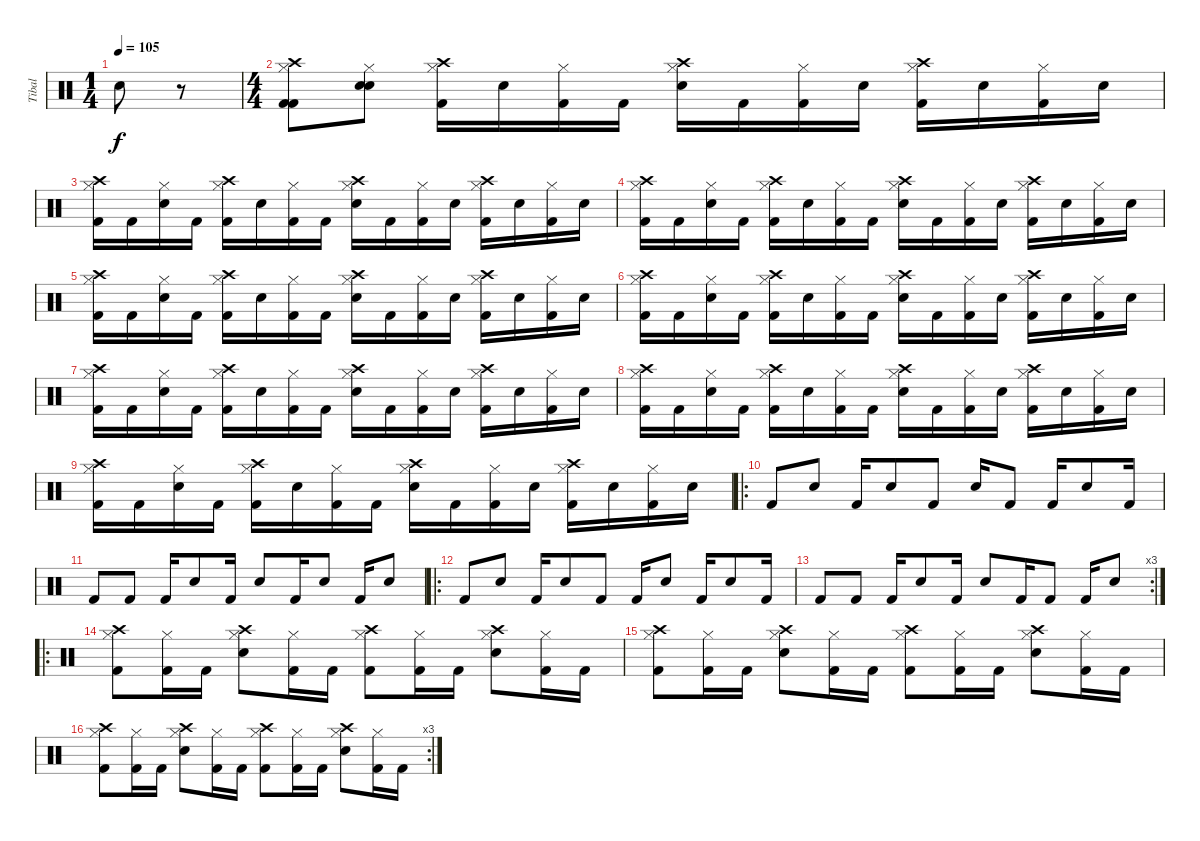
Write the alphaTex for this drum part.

\track ("Tibal" "Tibal") {instrument percussion}
\staff {score}
\articulation defaults
\ts (1 4)
\tempo 105
\clef neutral
\ks c "Snare (hit) 2".8{dy f}
r.8 |
\ts (4 4)
("Hi-Hat (closed)" "Crash high (hit)" "Kick (hit) 2" "Kick (hit) 2").8 ("Hi-Hat (closed)" "Snare (hit) 2" "Snare (hit) 2").8 ("Hi-Hat (closed)" "Crash high (hit)" "Kick (hit) 2").16 "Snare (hit) 2".16 ("Hi-Hat (closed)" "Kick (hit) 2").16 "Kick (hit) 2".16 ("Hi-Hat (closed)" "Crash high (hit)" "Snare (hit) 2").16 "Kick (hit) 2".16 ("Hi-Hat (closed)" "Kick (hit) 2").16 "Snare (hit) 2".16 ("Hi-Hat (closed)" "Crash high (hit)" "Kick (hit) 2").16 "Snare (hit) 2".16 ("Hi-Hat (closed)" "Kick (hit) 2").16 "Snare (hit) 2".16 |
("Hi-Hat (closed)" "Crash high (hit)" "Kick (hit) 2").16 "Kick (hit) 2".16 ("Hi-Hat (closed)" "Snare (hit) 2").16 "Kick (hit) 2".16 ("Hi-Hat (closed)" "Crash high (hit)" "Kick (hit) 2").16 "Snare (hit) 2".16 ("Hi-Hat (closed)" "Kick (hit) 2").16 "Kick (hit) 2".16 ("Hi-Hat (closed)" "Crash high (hit)" "Snare (hit) 2").16 "Kick (hit) 2".16 ("Hi-Hat (closed)" "Kick (hit) 2").16 "Snare (hit) 2".16 ("Hi-Hat (closed)" "Crash high (hit)" "Kick (hit) 2").16 "Snare (hit) 2".16 ("Hi-Hat (closed)" "Kick (hit) 2").16 "Snare (hit) 2".16 |
("Hi-Hat (closed)" "Crash high (hit)" "Kick (hit) 2").16 "Kick (hit) 2".16 ("Hi-Hat (closed)" "Snare (hit) 2").16 "Kick (hit) 2".16 ("Hi-Hat (closed)" "Crash high (hit)" "Kick (hit) 2").16 "Snare (hit) 2".16 ("Hi-Hat (closed)" "Kick (hit) 2").16 "Kick (hit) 2".16 ("Hi-Hat (closed)" "Crash high (hit)" "Snare (hit) 2").16 "Kick (hit) 2".16 ("Hi-Hat (closed)" "Kick (hit) 2").16 "Snare (hit) 2".16 ("Hi-Hat (closed)" "Crash high (hit)" "Kick (hit) 2").16 "Snare (hit) 2".16 ("Hi-Hat (closed)" "Kick (hit) 2").16 "Snare (hit) 2".16 |
("Hi-Hat (closed)" "Crash high (hit)" "Kick (hit) 2").16 "Kick (hit) 2".16 ("Hi-Hat (closed)" "Snare (hit) 2").16 "Kick (hit) 2".16 ("Hi-Hat (closed)" "Crash high (hit)" "Kick (hit) 2").16 "Snare (hit) 2".16 ("Hi-Hat (closed)" "Kick (hit) 2").16 "Kick (hit) 2".16 ("Hi-Hat (closed)" "Crash high (hit)" "Snare (hit) 2").16 "Kick (hit) 2".16 ("Hi-Hat (closed)" "Kick (hit) 2").16 "Snare (hit) 2".16 ("Hi-Hat (closed)" "Crash high (hit)" "Kick (hit) 2").16 "Snare (hit) 2".16 ("Hi-Hat (closed)" "Kick (hit) 2").16 "Snare (hit) 2".16 |
("Hi-Hat (closed)" "Crash high (hit)" "Kick (hit) 2").16 "Kick (hit) 2".16 ("Hi-Hat (closed)" "Snare (hit) 2").16 "Kick (hit) 2".16 ("Hi-Hat (closed)" "Crash high (hit)" "Kick (hit) 2").16 "Snare (hit) 2".16 ("Hi-Hat (closed)" "Kick (hit) 2").16 "Kick (hit) 2".16 ("Hi-Hat (closed)" "Crash high (hit)" "Snare (hit) 2").16 "Kick (hit) 2".16 ("Hi-Hat (closed)" "Kick (hit) 2").16 "Snare (hit) 2".16 ("Hi-Hat (closed)" "Crash high (hit)" "Kick (hit) 2").16 "Snare (hit) 2".16 ("Hi-Hat (closed)" "Kick (hit) 2").16 "Snare (hit) 2".16 |
("Hi-Hat (closed)" "Crash high (hit)" "Kick (hit) 2").16 "Kick (hit) 2".16 ("Hi-Hat (closed)" "Snare (hit) 2").16 "Kick (hit) 2".16 ("Hi-Hat (closed)" "Crash high (hit)" "Kick (hit) 2").16 "Snare (hit) 2".16 ("Hi-Hat (closed)" "Kick (hit) 2").16 "Kick (hit) 2".16 ("Hi-Hat (closed)" "Crash high (hit)" "Snare (hit) 2").16 "Kick (hit) 2".16 ("Hi-Hat (closed)" "Kick (hit) 2").16 "Snare (hit) 2".16 ("Hi-Hat (closed)" "Crash high (hit)" "Kick (hit) 2").16 "Snare (hit) 2".16 ("Hi-Hat (closed)" "Kick (hit) 2").16 "Snare (hit) 2".16 |
("Hi-Hat (closed)" "Crash high (hit)" "Kick (hit) 2").16 "Kick (hit) 2".16 ("Hi-Hat (closed)" "Snare (hit) 2").16 "Kick (hit) 2".16 ("Hi-Hat (closed)" "Crash high (hit)" "Kick (hit) 2").16 "Snare (hit) 2".16 ("Hi-Hat (closed)" "Kick (hit) 2").16 "Kick (hit) 2".16 ("Hi-Hat (closed)" "Crash high (hit)" "Snare (hit) 2").16 "Kick (hit) 2".16 ("Hi-Hat (closed)" "Kick (hit) 2").16 "Snare (hit) 2".16 ("Hi-Hat (closed)" "Crash high (hit)" "Kick (hit) 2").16 "Snare (hit) 2".16 ("Hi-Hat (closed)" "Kick (hit) 2").16 "Snare (hit) 2".16 |
("Hi-Hat (closed)" "Crash high (hit)" "Kick (hit) 2").16 "Kick (hit) 2".16 ("Hi-Hat (closed)" "Snare (hit) 2").16 "Kick (hit) 2".16 ("Hi-Hat (closed)" "Crash high (hit)" "Kick (hit) 2").16 "Snare (hit) 2".16 ("Hi-Hat (closed)" "Kick (hit) 2").16 "Kick (hit) 2".16 ("Hi-Hat (closed)" "Crash high (hit)" "Snare (hit) 2").16 "Kick (hit) 2".16 ("Hi-Hat (closed)" "Kick (hit) 2").16 "Snare (hit) 2".16 ("Hi-Hat (closed)" "Crash high (hit)" "Kick (hit) 2").16 "Snare (hit) 2".16 ("Hi-Hat (closed)" "Kick (hit) 2").16 "Snare (hit) 2".16 |
\ro "Kick (hit) 2".8 "Snare (hit) 2".8 "Kick (hit) 2".16 "Snare (hit) 2".8 "Kick (hit) 2".8 "Snare (hit) 2".16 "Kick (hit) 2".8 "Kick (hit) 2".16 "Snare (hit) 2".8 "Kick (hit) 2".16
|
"Kick (hit) 2".8 "Kick (hit) 2".8 "Kick (hit) 2".16 "Snare (hit) 2".8 "Kick (hit) 2".16 "Snare (hit) 2".8 "Kick (hit) 2".16 "Snare (hit) 2".8 "Kick (hit) 2".16 "Snare (hit) 2".8 |
\ro "Kick (hit) 2".8 "Snare (hit) 2".8 "Kick (hit) 2".16 "Snare (hit) 2".8 "Kick (hit) 2".8 "Kick (hit) 2".16 "Snare (hit) 2".8 "Kick (hit) 2".16 "Snare (hit) 2".8 "Kick (hit) 2".16
|
\rc 3 "Kick (hit) 2".8 "Kick (hit) 2".8 "Kick (hit) 2".16 "Snare (hit) 2".8 "Kick (hit) 2".16 "Snare (hit) 2".8 "Kick (hit) 2".16 "Kick (hit) 2".8 "Kick (hit) 2".16 "Snare (hit) 2".8
|
\ro
("Crash high (hit)" "Hi-Hat (closed)" "Kick (hit) 2").8 ("Hi-Hat (closed)" "Kick (hit) 2").16 "Kick (hit) 2".16 ("Crash high (hit)" "Hi-Hat (closed)" "Snare (hit) 2").8 ("Hi-Hat (closed)" "Kick (hit) 2").16 "Kick (hit) 2".16 ("Crash high (hit)" "Hi-Hat (closed)" "Kick (hit) 2").8 ("Hi-Hat (closed)" "Kick (hit) 2").16 "Kick (hit) 2".16 ("Crash high (hit)" "Hi-Hat (closed)" "Snare (hit) 2").8 ("Hi-Hat (closed)" "Kick (hit) 2").16 "Kick (hit) 2".16 |
("Crash high (hit)" "Hi-Hat (closed)" "Kick (hit) 2").8 ("Hi-Hat (closed)" "Kick (hit) 2").16 "Kick (hit) 2".16 ("Crash high (hit)" "Hi-Hat (closed)" "Snare (hit) 2").8 ("Hi-Hat (closed)" "Kick (hit) 2").16 "Kick (hit) 2".16 ("Crash high (hit)" "Hi-Hat (closed)" "Kick (hit) 2").8 ("Hi-Hat (closed)" "Kick (hit) 2").16 "Kick (hit) 2".16 ("Crash high (hit)" "Hi-Hat (closed)" "Snare (hit) 2").8 ("Hi-Hat (closed)" "Kick (hit) 2").16 "Kick (hit) 2".16 |
\rc 3
("Crash high (hit)" "Hi-Hat (closed)" "Kick (hit) 2").8 ("Hi-Hat (closed)" "Kick (hit) 2").16 "Kick (hit) 2".16 ("Crash high (hit)" "Hi-Hat (closed)" "Snare (hit) 2").8 ("Hi-Hat (closed)" "Kick (hit) 2").16 "Kick (hit) 2".16 ("Crash high (hit)" "Hi-Hat (closed)" "Kick (hit) 2").8 ("Hi-Hat (closed)" "Kick (hit) 2").16 "Kick (hit) 2".16 ("Crash high (hit)" "Hi-Hat (closed)" "Snare (hit) 2").8 ("Hi-Hat (closed)" "Kick (hit) 2").16 "Kick (hit) 2".16
